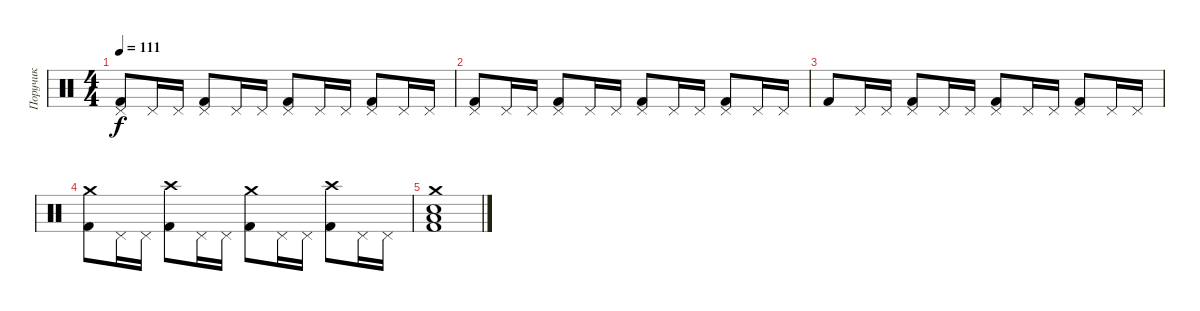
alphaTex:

\track ("Поручик" "Поручик") {instrument percussion}
\staff {score}
\articulation defaults
\ts (4 4)
\tempo 111
\clef neutral
\ks c
("Pedal Hi-Hat (hit)" "Kick (hit) 2").8{dy f} "Pedal Hi-Hat (hit)".16 "Pedal Hi-Hat (hit)".16 ("Pedal Hi-Hat (hit)" "Kick (hit) 2").8 "Pedal Hi-Hat (hit)".16 "Pedal Hi-Hat (hit)".16 ("Pedal Hi-Hat (hit)" "Kick (hit) 2").8 "Pedal Hi-Hat (hit)".16 "Pedal Hi-Hat (hit)".16 ("Pedal Hi-Hat (hit)" "Kick (hit) 2").8 "Pedal Hi-Hat (hit)".16 "Pedal Hi-Hat (hit)".16 |
("Pedal Hi-Hat (hit)" "Kick (hit) 2").8 "Pedal Hi-Hat (hit)".16 "Pedal Hi-Hat (hit)".16 ("Pedal Hi-Hat (hit)" "Kick (hit) 2").8 "Pedal Hi-Hat (hit)".16 "Pedal Hi-Hat (hit)".16 ("Pedal Hi-Hat (hit)" "Kick (hit) 2").8 "Pedal Hi-Hat (hit)".16 "Pedal Hi-Hat (hit)".16 ("Pedal Hi-Hat (hit)" "Kick (hit) 2").8 "Pedal Hi-Hat (hit)".16 "Pedal Hi-Hat (hit)".16 |
"Kick (hit) 2".8 "Pedal Hi-Hat (hit)".16 "Pedal Hi-Hat (hit)".16 ("Pedal Hi-Hat (hit)" "Kick (hit) 2").8 "Pedal Hi-Hat (hit)".16 "Pedal Hi-Hat (hit)".16 ("Pedal Hi-Hat (hit)" "Kick (hit) 2").8 "Pedal Hi-Hat (hit)".16 "Pedal Hi-Hat (hit)".16 ("Pedal Hi-Hat (hit)" "Kick (hit) 2").8 "Pedal Hi-Hat (hit)".16 "Pedal Hi-Hat (hit)".16 |
("Crash medium (hit)" "Kick (hit) 2").8 "Pedal Hi-Hat (hit)".16 "Pedal Hi-Hat (hit)".16 ("Crash high (hit)" "Kick (hit) 2").8 "Pedal Hi-Hat (hit)".16 "Pedal Hi-Hat (hit)".16 ("Crash medium (hit)" "Kick (hit) 2").8 "Pedal Hi-Hat (hit)".16 "Pedal Hi-Hat (hit)".16 ("Crash high (hit)" "Kick (hit) 2").8 "Pedal Hi-Hat (hit)".16 "Pedal Hi-Hat (hit)".16 |
("Crash medium (hit)" "Electric Snare (hit)" "Kick (hit) 2" "Low Tom (hit)").1
